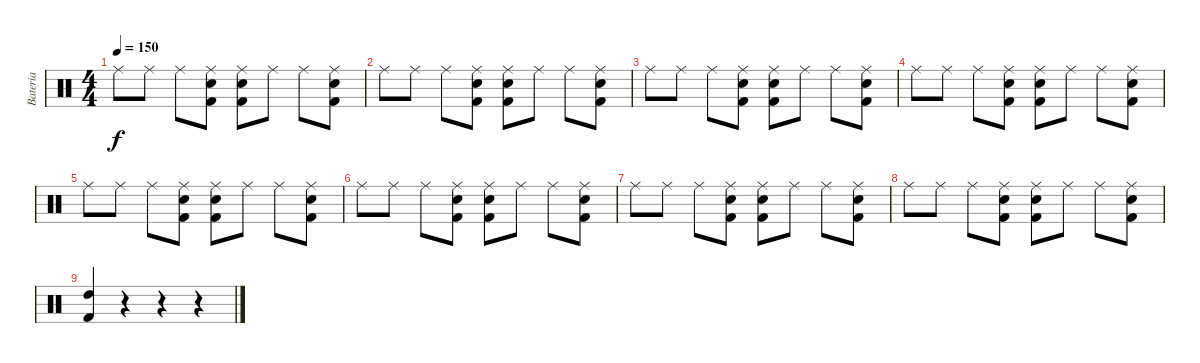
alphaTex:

\track ("Bateria" "Bateria") {instrument percussion}
\staff {score}
\articulation defaults
\ts (4 4)
\tempo 150
\clef neutral
\ks c "Ride (middle)".8{dy f} "Ride (middle)".8 "Ride (middle)".8
("Ride (middle)" "Electric Snare (hit)" "Kick (hit) 2").8 ("Ride (middle)" "Electric Snare (hit)" "Kick (hit) 2").8 "Ride (middle)".8 "Ride (middle)".8 ("Ride (middle)" "Electric Snare (hit)" "Kick (hit) 2").8 |
"Ride (middle)".8 "Ride (middle)".8 "Ride (middle)".8 ("Ride (middle)" "Electric Snare (hit)" "Kick (hit) 2").8 ("Ride (middle)" "Electric Snare (hit)" "Kick (hit) 2").8 "Ride (middle)".8 "Ride (middle)".8 ("Ride (middle)" "Electric Snare (hit)" "Kick (hit) 2").8 |
"Ride (middle)".8 "Ride (middle)".8 "Ride (middle)".8 ("Ride (middle)" "Electric Snare (hit)" "Kick (hit) 2").8 ("Ride (middle)" "Electric Snare (hit)" "Kick (hit) 2").8 "Ride (middle)".8 "Ride (middle)".8 ("Ride (middle)" "Electric Snare (hit)" "Kick (hit) 2").8 |
"Ride (middle)".8 "Ride (middle)".8 "Ride (middle)".8 ("Ride (middle)" "Electric Snare (hit)" "Kick (hit) 2").8 ("Ride (middle)" "Electric Snare (hit)" "Kick (hit) 2").8 "Ride (middle)".8 "Ride (middle)".8 ("Ride (middle)" "Electric Snare (hit)" "Kick (hit) 2").8 |
"Ride (middle)".8 "Ride (middle)".8 "Ride (middle)".8 ("Ride (middle)" "Electric Snare (hit)" "Kick (hit) 2").8 ("Ride (middle)" "Electric Snare (hit)" "Kick (hit) 2").8 "Ride (middle)".8 "Ride (middle)".8 ("Ride (middle)" "Electric Snare (hit)" "Kick (hit) 2").8 |
"Ride (middle)".8 "Ride (middle)".8 "Ride (middle)".8 ("Ride (middle)" "Electric Snare (hit)" "Kick (hit) 2").8 ("Ride (middle)" "Electric Snare (hit)" "Kick (hit) 2").8 "Ride (middle)".8 "Ride (middle)".8 ("Ride (middle)" "Electric Snare (hit)" "Kick (hit) 2").8 |
"Ride (middle)".8 "Ride (middle)".8 "Ride (middle)".8 ("Ride (middle)" "Electric Snare (hit)" "Kick (hit) 2").8 ("Ride (middle)" "Electric Snare (hit)" "Kick (hit) 2").8 "Ride (middle)".8 "Ride (middle)".8 ("Ride (middle)" "Electric Snare (hit)" "Kick (hit) 2").8 |
"Ride (middle)".8 "Ride (middle)".8 "Ride (middle)".8 ("Ride (middle)" "Electric Snare (hit)" "Kick (hit) 2").8 ("Ride (middle)" "Electric Snare (hit)" "Kick (hit) 2").8 "Ride (middle)".8 "Ride (middle)".8 ("Ride (middle)" "Electric Snare (hit)" "Kick (hit) 2").8 |
("High Tom (hit)" "Kick (hit) 2").4 r.4 r.4 r.4
